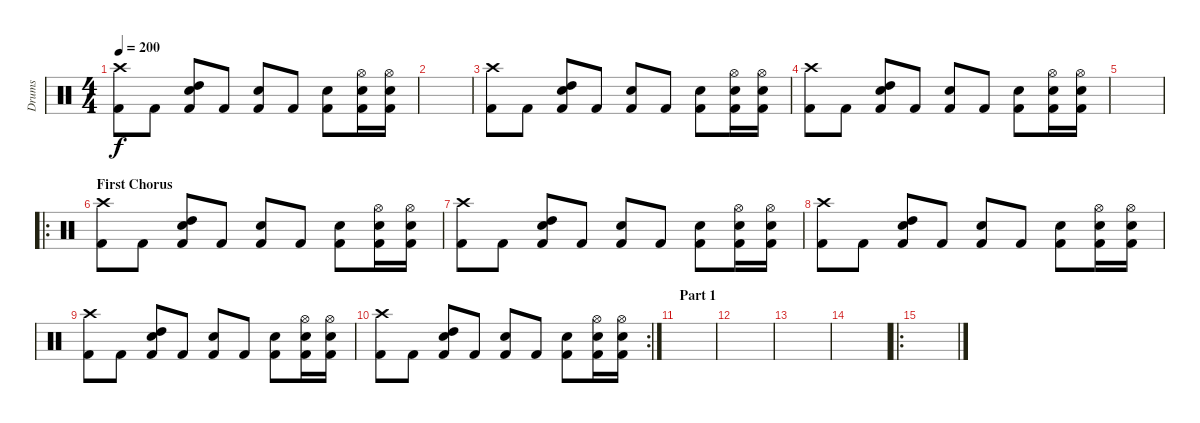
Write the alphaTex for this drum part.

\track ("Drums" "Drums") {instrument percussion}
\staff {score}
\articulation defaults
\ts (4 4)
\tempo 200
\clef neutral
\ks c
("Kick (hit) 2" "Crash high (hit)").8{dy f} "Kick (hit) 2".8 ("Kick (hit) 2" "Electric Snare (hit)" "High Tom (hit)").8 "Kick (hit) 2".8 ("Kick (hit) 2" "Electric Snare (hit)").8 "Kick (hit) 2".8 ("Kick (hit) 2" "Electric Snare (hit)").8 ("Kick (hit) 2" "Hi-Hat (open)" "Electric Snare (hit)").16 ("Kick (hit) 2" "Hi-Hat (open)" "Electric Snare (hit)").16 |
|
("Kick (hit) 2" "Crash high (hit)").8 "Kick (hit) 2".8 ("Kick (hit) 2" "Electric Snare (hit)" "High Tom (hit)").8 "Kick (hit) 2".8 ("Kick (hit) 2" "Electric Snare (hit)").8 "Kick (hit) 2".8 ("Kick (hit) 2" "Electric Snare (hit)").8 ("Kick (hit) 2" "Hi-Hat (open)" "Electric Snare (hit)").16 ("Kick (hit) 2" "Hi-Hat (open)" "Electric Snare (hit)").16 |
("Kick (hit) 2" "Crash high (hit)").8 "Kick (hit) 2".8 ("Kick (hit) 2" "Electric Snare (hit)" "High Tom (hit)").8 "Kick (hit) 2".8 ("Kick (hit) 2" "Electric Snare (hit)").8 "Kick (hit) 2".8 ("Kick (hit) 2" "Electric Snare (hit)").8 ("Kick (hit) 2" "Hi-Hat (open)" "Electric Snare (hit)").16 ("Kick (hit) 2" "Hi-Hat (open)" "Electric Snare (hit)").16 |
|
\ro
\section ("" "First Chorus")
("Kick (hit) 2" "Crash high (hit)").8 "Kick (hit) 2".8 ("Kick (hit) 2" "Electric Snare (hit)" "High Tom (hit)").8 "Kick (hit) 2".8 ("Kick (hit) 2" "Electric Snare (hit)").8 "Kick (hit) 2".8 ("Kick (hit) 2" "Electric Snare (hit)").8 ("Kick (hit) 2" "Hi-Hat (open)" "Electric Snare (hit)").16 ("Kick (hit) 2" "Hi-Hat (open)" "Electric Snare (hit)").16 |
("Kick (hit) 2" "Crash high (hit)").8 "Kick (hit) 2".8 ("Kick (hit) 2" "Electric Snare (hit)" "High Tom (hit)").8 "Kick (hit) 2".8 ("Kick (hit) 2" "Electric Snare (hit)").8 "Kick (hit) 2".8 ("Kick (hit) 2" "Electric Snare (hit)").8 ("Kick (hit) 2" "Hi-Hat (open)" "Electric Snare (hit)").16 ("Kick (hit) 2" "Hi-Hat (open)" "Electric Snare (hit)").16 |
("Kick (hit) 2" "Crash high (hit)").8 "Kick (hit) 2".8 ("Kick (hit) 2" "Electric Snare (hit)" "High Tom (hit)").8 "Kick (hit) 2".8 ("Kick (hit) 2" "Electric Snare (hit)").8 "Kick (hit) 2".8 ("Kick (hit) 2" "Electric Snare (hit)").8 ("Kick (hit) 2" "Hi-Hat (open)" "Electric Snare (hit)").16 ("Kick (hit) 2" "Hi-Hat (open)" "Electric Snare (hit)").16 |
("Kick (hit) 2" "Crash high (hit)").8 "Kick (hit) 2".8 ("Kick (hit) 2" "Electric Snare (hit)" "High Tom (hit)").8 "Kick (hit) 2".8 ("Kick (hit) 2" "Electric Snare (hit)").8 "Kick (hit) 2".8 ("Kick (hit) 2" "Electric Snare (hit)").8 ("Kick (hit) 2" "Hi-Hat (open)" "Electric Snare (hit)").16 ("Kick (hit) 2" "Hi-Hat (open)" "Electric Snare (hit)").16 |
\rc 2
("Kick (hit) 2" "Crash high (hit)").8 "Kick (hit) 2".8 ("Kick (hit) 2" "Electric Snare (hit)" "High Tom (hit)").8 "Kick (hit) 2".8 ("Kick (hit) 2" "Electric Snare (hit)").8 "Kick (hit) 2".8 ("Kick (hit) 2" "Electric Snare (hit)").8 ("Kick (hit) 2" "Hi-Hat (open)" "Electric Snare (hit)").16 ("Kick (hit) 2" "Hi-Hat (open)" "Electric Snare (hit)").16 |
\section ("" "Part 1")
|
|
|
|
\ro
